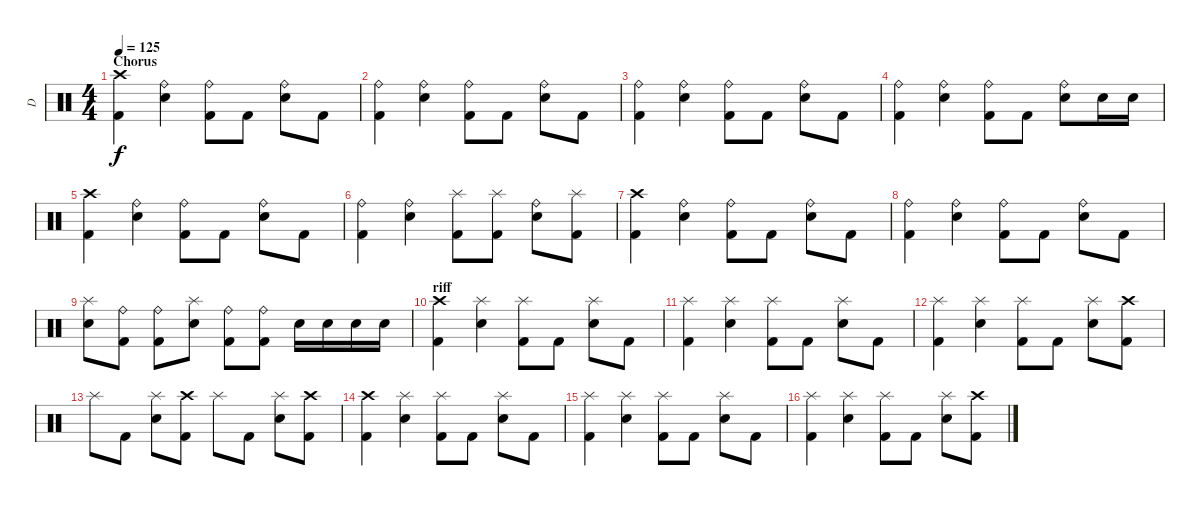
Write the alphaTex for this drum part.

\track ("D" "D") {instrument percussion}
\staff {score}
\articulation defaults
\ts (4 4)
\section ("" "Chorus")
\tempo 125
\clef neutral
\ks c
("Crash high (hit)" "Kick (hit) 2").4{dy f} ("Ride (bell)" "Electric Snare (hit)").4 ("Ride (bell)" "Kick (hit) 2").8 "Kick (hit) 2".8 ("Ride (bell)" "Electric Snare (hit)").8 "Kick (hit) 2".8 |
("Ride (bell)" "Kick (hit) 2").4 ("Ride (bell)" "Electric Snare (hit)").4 ("Ride (bell)" "Kick (hit) 2").8 "Kick (hit) 2".8 ("Ride (bell)" "Electric Snare (hit)").8 "Kick (hit) 2".8 |
("Ride (bell)" "Kick (hit) 2").4 ("Ride (bell)" "Electric Snare (hit)").4 ("Ride (bell)" "Kick (hit) 2").8 "Kick (hit) 2".8 ("Ride (bell)" "Electric Snare (hit)").8 "Kick (hit) 2".8 |
("Ride (bell)" "Kick (hit) 2").4 ("Ride (bell)" "Electric Snare (hit)").4 ("Ride (bell)" "Kick (hit) 2").8 "Kick (hit) 2".8 ("Ride (bell)" "Electric Snare (hit)").8 "Electric Snare (hit)".16 "Electric Snare (hit)".16 |
("Crash high (hit)" "Kick (hit) 2").4 ("Ride (bell)" "Electric Snare (hit)").4 ("Ride (bell)" "Kick (hit) 2").8 "Kick (hit) 2".8 ("Ride (bell)" "Electric Snare (hit)").8 "Kick (hit) 2".8 |
("Ride (bell)" "Kick (hit) 2").4 ("Ride (bell)" "Electric Snare (hit)").4 ("Splash (hit)" "Kick (hit) 2").8 ("Splash (hit)" "Kick (hit) 2").8 ("Ride (bell)" "Electric Snare (hit)").8 ("Splash (hit)" "Kick (hit) 2").8 |
("Crash high (hit)" "Kick (hit) 2").4 ("Ride (bell)" "Electric Snare (hit)").4 ("Ride (bell)" "Kick (hit) 2").8 "Kick (hit) 2".8 ("Ride (bell)" "Electric Snare (hit)").8 "Kick (hit) 2".8 |
("Ride (bell)" "Kick (hit) 2").4 ("Ride (bell)" "Electric Snare (hit)").4 ("Ride (bell)" "Kick (hit) 2").8 "Kick (hit) 2".8 ("Ride (bell)" "Electric Snare (hit)").8 "Kick (hit) 2".8 |
("Splash (hit)" "Electric Snare (hit)").8 ("Ride (bell)" "Kick (hit) 2").8 ("Ride (bell)" "Kick (hit) 2").8 ("Splash (hit)" "Electric Snare (hit)").8 ("Ride (bell)" "Kick (hit) 2").8 ("Ride (bell)" "Kick (hit) 2").8 "Electric Snare (hit)".16 "Electric Snare (hit)".16 "Electric Snare (hit)".16 "Electric Snare (hit)".16 |
\section ("" "riff")
("Crash high (hit)" "Kick (hit) 2").4 ("Splash (hit)" "Electric Snare (hit)").4 ("Splash (hit)" "Kick (hit) 2").8 "Kick (hit) 2".8 ("Splash (hit)" "Electric Snare (hit)").8 "Kick (hit) 2".8 |
("Splash (hit)" "Kick (hit) 2").4 ("Splash (hit)" "Electric Snare (hit)").4 ("Splash (hit)" "Kick (hit) 2").8 "Kick (hit) 2".8 ("Splash (hit)" "Electric Snare (hit)").8 "Kick (hit) 2".8 |
("Splash (hit)" "Kick (hit) 2").4 ("Splash (hit)" "Electric Snare (hit)").4 ("Splash (hit)" "Kick (hit) 2").8 "Kick (hit) 2".8 ("Splash (hit)" "Electric Snare (hit)").8 ("Crash high (hit)" "Kick (hit) 2").8 |
"Splash (hit)".8 "Kick (hit) 2".8 ("Splash (hit)" "Electric Snare (hit)").8 ("Crash high (hit)" "Kick (hit) 2").8 "Splash (hit)".8 "Kick (hit) 2".8 ("Splash (hit)" "Electric Snare (hit)").8 ("Crash high (hit)" "Kick (hit) 2").8 |
("Crash high (hit)" "Kick (hit) 2").4 ("Splash (hit)" "Electric Snare (hit)").4 ("Splash (hit)" "Kick (hit) 2").8 "Kick (hit) 2".8 ("Splash (hit)" "Electric Snare (hit)").8 "Kick (hit) 2".8 |
("Splash (hit)" "Kick (hit) 2").4 ("Splash (hit)" "Electric Snare (hit)").4 ("Splash (hit)" "Kick (hit) 2").8 "Kick (hit) 2".8 ("Splash (hit)" "Electric Snare (hit)").8 "Kick (hit) 2".8 |
("Splash (hit)" "Kick (hit) 2").4 ("Splash (hit)" "Electric Snare (hit)").4 ("Splash (hit)" "Kick (hit) 2").8 "Kick (hit) 2".8 ("Splash (hit)" "Electric Snare (hit)").8 ("Crash high (hit)" "Kick (hit) 2").8
